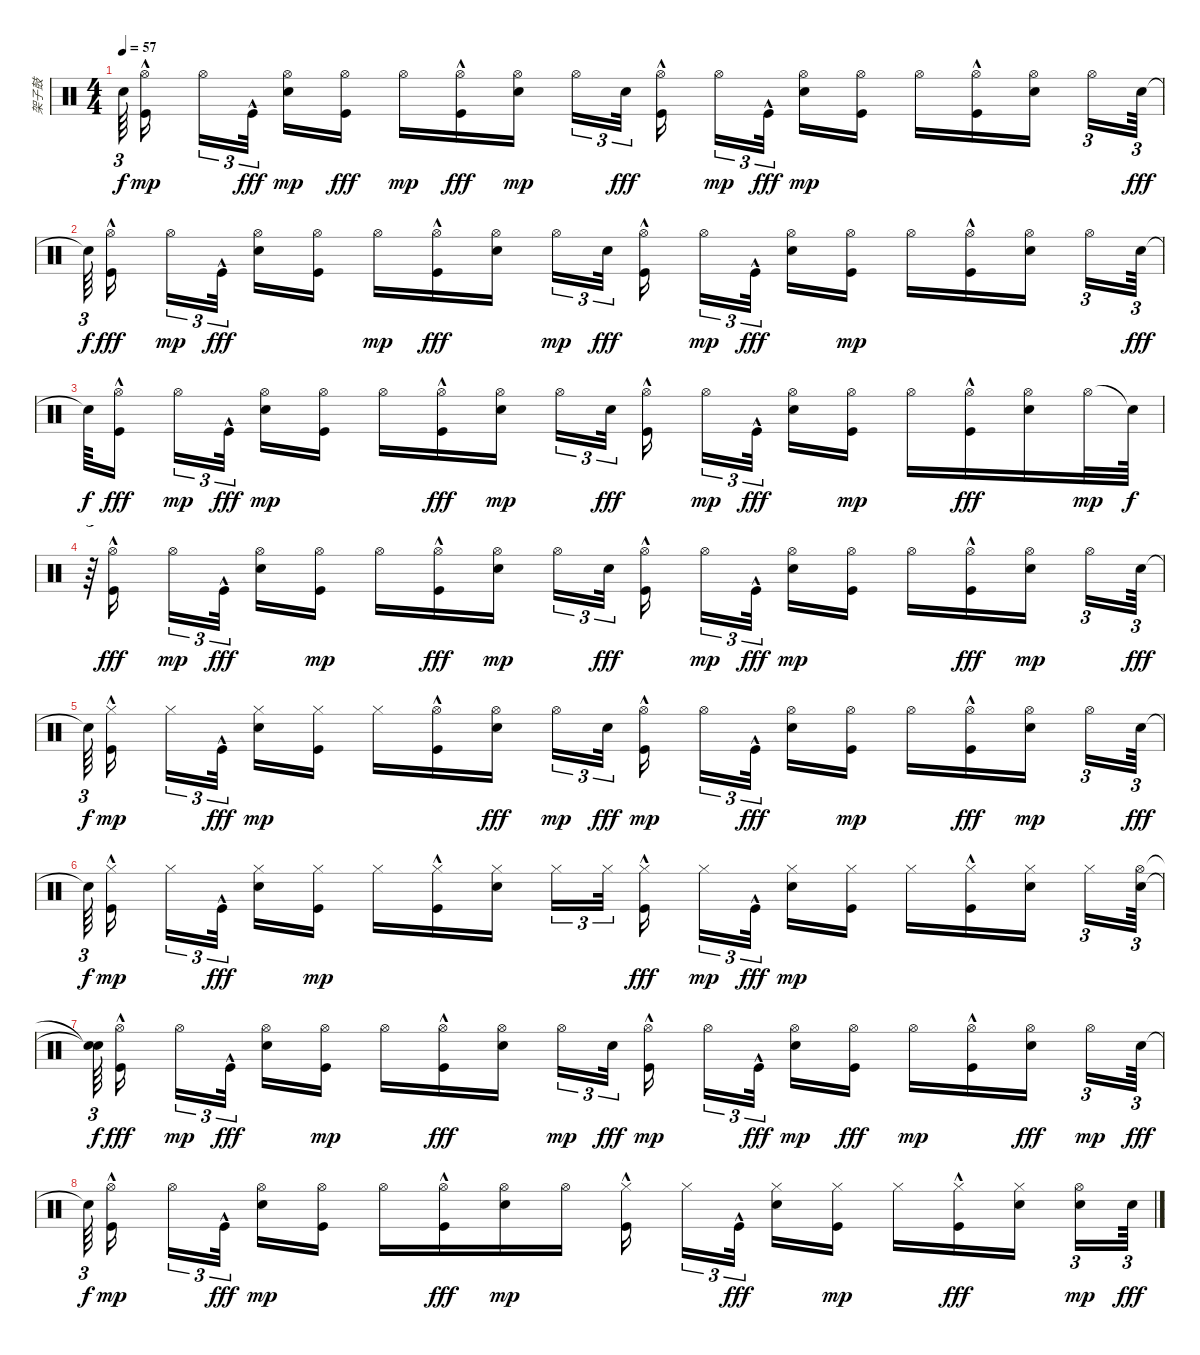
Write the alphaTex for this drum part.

\track ("架子鼓" "架子鼓") {instrument percussion}
\staff {score}
\articulation defaults
\ts (4 4)
\tempo 57
\clef neutral
\ks c "Snare (hit)"{t}.64{tu (3 2) dy f}
("Kick (hit)"{hac} "Hi-Hat (open)").16{dy mp} "Hi-Hat (open)".16{tu (3 2)} "Kick (hit)"{hac}.32{tu (3 2) dy fff} ("Electric Snare (hit)" "Hi-Hat (open)").16{dy mp} ("Hi-Hat (open)" "Kick (hit)").16{dy fff} "Hi-Hat (open)".16{dy mp} ("Hi-Hat (open)" "Kick (hit)"{hac}).16{dy fff} ("Electric Snare (hit)" "Hi-Hat (open)").16{dy mp} "Hi-Hat (open)".16{tu (3 2)} "Electric Snare (hit)".32{tu (3 2) dy fff} ("Hi-Hat (open)" "Kick (hit)"{hac}).16 "Hi-Hat (open)".16{tu (3 2) dy mp} "Kick (hit)"{hac}.32{tu (3 2) dy fff} ("Electric Snare (hit)" "Hi-Hat (open)").16{dy mp} ("Kick (hit)" "Hi-Hat (open)").16 "Hi-Hat (open)".16 ("Kick (hit)"{hac} "Hi-Hat (open)").16 ("Electric Snare (hit)" "Hi-Hat (open)").16 "Hi-Hat (open)".16{tu (3 2)} "Electric Snare (hit)".64{tu (3 2) dy fff} |
"Snare (hit)"{t}.64{tu (3 2) dy f} ("Hi-Hat (open)" "Kick (hit)"{hac}).16{dy fff} "Hi-Hat (open)".16{tu (3 2) dy mp} "Kick (hit)"{hac}.32{tu (3 2) dy fff} ("Hi-Hat (open)" "Electric Snare (hit)").16 ("Hi-Hat (open)" "Kick (hit)").16 "Hi-Hat (open)".16{dy mp} ("Hi-Hat (open)" "Kick (hit)"{hac}).16{dy fff} ("Hi-Hat (open)" "Electric Snare (hit)").16 "Hi-Hat (open)".16{tu (3 2) dy mp} "Electric Snare (hit)".32{tu (3 2) dy fff} ("Hi-Hat (open)" "Kick (hit)"{hac}).16 "Hi-Hat (open)".16{tu (3 2) dy mp} "Kick (hit)"{hac}.32{tu (3 2) dy fff} ("Hi-Hat (open)" "Electric Snare (hit)").16 ("Kick (hit)" "Hi-Hat (open)").16{dy mp} "Hi-Hat (open)".16 ("Kick (hit)"{hac} "Hi-Hat (open)").16 ("Electric Snare (hit)" "Hi-Hat (open)").16 "Hi-Hat (open)".16{tu (3 2)} "Electric Snare (hit)".64{tu (3 2) dy fff} |
"Snare (hit)"{t}.64{dy f} ("Hi-Hat (open)" "Kick (hit)"{hac}).16{dy fff} "Hi-Hat (open)".16{tu (3 2) dy mp} "Kick (hit)"{hac}.32{tu (3 2) dy fff} ("Electric Snare (hit)" "Hi-Hat (open)").16{dy mp} ("Kick (hit)" "Hi-Hat (open)").16 "Hi-Hat (open)".16 ("Hi-Hat (open)" "Kick (hit)"{hac}).16{dy fff} ("Electric Snare (hit)" "Hi-Hat (open)").16{dy mp} "Hi-Hat (open)".16{tu (3 2)} "Electric Snare (hit)".32{tu (3 2) dy fff} ("Hi-Hat (open)" "Kick (hit)"{hac}).16 "Hi-Hat (open)".16{tu (3 2) dy mp} "Kick (hit)"{hac}.32{tu (3 2) dy fff} ("Hi-Hat (open)" "Electric Snare (hit)").16 ("Kick (hit)" "Hi-Hat (open)").16{dy mp} "Hi-Hat (open)".16 ("Hi-Hat (open)" "Kick (hit)"{hac}).16{dy fff} ("Hi-Hat (open)" "Electric Snare (hit)").16 "Hi-Hat (open)".32{dy mp} "Snare (hit)"{t}.64{dy f} |
r.64{tu (3 2)} ("Hi-Hat (open)" "Kick (hit)"{hac}).16{dy fff} "Hi-Hat (open)".16{tu (3 2) dy mp} "Kick (hit)"{hac}.32{tu (3 2) dy fff} ("Hi-Hat (open)" "Electric Snare (hit)").16 ("Kick (hit)" "Hi-Hat (open)").16{dy mp} "Hi-Hat (open)".16 ("Hi-Hat (open)" "Kick (hit)"{hac}).16{dy fff} ("Electric Snare (hit)" "Hi-Hat (open)").16{dy mp} "Hi-Hat (open)".16{tu (3 2)} "Electric Snare (hit)".32{tu (3 2) dy fff} ("Hi-Hat (open)" "Kick (hit)"{hac}).16 "Hi-Hat (open)".16{tu (3 2) dy mp} "Kick (hit)"{hac}.32{tu (3 2) dy fff} ("Electric Snare (hit)" "Hi-Hat (open)").16{dy mp} ("Kick (hit)" "Hi-Hat (open)").16 "Hi-Hat (open)".16 ("Hi-Hat (open)" "Kick (hit)"{hac}).16{dy fff} ("Electric Snare (hit)" "Hi-Hat (open)").16{dy mp} "Hi-Hat (open)".16{tu (3 2)} "Electric Snare (hit)".64{tu (3 2) dy fff} |
"Snare (hit)"{t}.64{tu (3 2) dy f} ("Kick (hit)"{hac} "Hi-Hat (closed)").16{dy mp} "Hi-Hat (closed)".16{tu (3 2)} "Kick (hit)"{hac}.32{tu (3 2) dy fff} ("Electric Snare (hit)" "Hi-Hat (closed)").16{dy mp} ("Kick (hit)" "Hi-Hat (closed)").16 "Hi-Hat (closed)".16 ("Kick (hit)"{hac} "Hi-Hat (open)").16 ("Hi-Hat (open)" "Electric Snare (hit)").16{dy fff} "Hi-Hat (open)".16{tu (3 2) dy mp} "Electric Snare (hit)".32{tu (3 2) dy fff} ("Kick (hit)"{hac} "Hi-Hat (open)").16{dy mp} "Hi-Hat (open)".16{tu (3 2)} "Kick (hit)"{hac}.32{tu (3 2) dy fff} ("Hi-Hat (open)" "Electric Snare (hit)").16 ("Kick (hit)" "Hi-Hat (open)").16{dy mp} "Hi-Hat (open)".16 ("Hi-Hat (open)" "Kick (hit)"{hac}).16{dy fff} ("Electric Snare (hit)" "Hi-Hat (open)").16{dy mp} "Hi-Hat (open)".16{tu (3 2)} "Electric Snare (hit)".64{tu (3 2) dy fff} |
"Snare (hit)"{t}.64{tu (3 2) dy f} ("Kick (hit)"{hac} "Hi-Hat (closed)").16{dy mp} "Hi-Hat (closed)".16{tu (3 2)} "Kick (hit)"{hac}.32{tu (3 2) dy fff} ("Hi-Hat (closed)" "Electric Snare (hit)").16 ("Kick (hit)" "Hi-Hat (closed)").16{dy mp} "Hi-Hat (closed)".16 ("Kick (hit)"{hac} "Hi-Hat (closed)").16 ("Electric Snare (hit)" "Hi-Hat (closed)").16 "Hi-Hat (closed)".16{tu (3 2)} "Hi-Hat (closed)".32{tu (3 2)} ("Hi-Hat (closed)" "Kick (hit)"{hac}).16{dy fff} "Hi-Hat (closed)".16{tu (3 2) dy mp} "Kick (hit)"{hac}.32{tu (3 2) dy fff} ("Electric Snare (hit)" "Hi-Hat (closed)").16{dy mp} ("Kick (hit)" "Hi-Hat (closed)").16 "Hi-Hat (closed)".16 ("Kick (hit)"{hac} "Hi-Hat (closed)").16 ("Electric Snare (hit)" "Hi-Hat (closed)").16 "Hi-Hat (closed)".16{tu (3 2)} ("Electric Snare (hit)" "Hi-Hat (open)").64{tu (3 2)} |
("Snare (hit)"{t} "Snare (hit)"{t}).64{tu (3 2) dy f} ("Hi-Hat (open)" "Kick (hit)"{hac}).16{dy fff} "Hi-Hat (open)".16{tu (3 2) dy mp} "Kick (hit)"{hac}.32{tu (3 2) dy fff} ("Hi-Hat (open)" "Electric Snare (hit)").16 ("Kick (hit)" "Hi-Hat (open)").16{dy mp} "Hi-Hat (open)".16 ("Hi-Hat (open)" "Kick (hit)"{hac}).16{dy fff} ("Hi-Hat (open)" "Electric Snare (hit)").16 "Hi-Hat (open)".16{tu (3 2) dy mp} "Electric Snare (hit)".32{tu (3 2) dy fff} ("Kick (hit)"{hac} "Hi-Hat (open)").16{dy mp} "Hi-Hat (open)".16{tu (3 2)} "Kick (hit)"{hac}.32{tu (3 2) dy fff} ("Electric Snare (hit)" "Hi-Hat (open)").16{dy mp} ("Hi-Hat (open)" "Kick (hit)").16{dy fff} "Hi-Hat (open)".16{dy mp} ("Kick (hit)"{hac} "Hi-Hat (open)").16 ("Hi-Hat (open)" "Electric Snare (hit)").16{dy fff} "Hi-Hat (open)".16{tu (3 2) dy mp} "Electric Snare (hit)".64{tu (3 2) dy fff} |
"Snare (hit)"{t}.64{tu (3 2) dy f} ("Kick (hit)"{hac} "Hi-Hat (open)").16{dy mp} "Hi-Hat (open)".16{tu (3 2)} "Kick (hit)"{hac}.32{tu (3 2) dy fff} ("Electric Snare (hit)" "Hi-Hat (open)").16{dy mp} ("Kick (hit)" "Hi-Hat (open)").16 "Hi-Hat (open)".16 ("Hi-Hat (open)" "Kick (hit)"{hac}).16{dy fff} ("Electric Snare (hit)" "Hi-Hat (open)").16{dy mp} "Hi-Hat (open)".16 ("Kick (hit)"{hac} "Hi-Hat (closed)").16 "Hi-Hat (closed)".16{tu (3 2)} "Kick (hit)"{hac}.32{tu (3 2) dy fff} ("Hi-Hat (closed)" "Electric Snare (hit)").16 ("Kick (hit)" "Hi-Hat (closed)").16{dy mp} "Hi-Hat (closed)".16 ("Hi-Hat (closed)" "Kick (hit)"{hac}).16{dy fff} ("Hi-Hat (closed)" "Electric Snare (hit)").16 ("Electric Snare (hit)" "Hi-Hat (open)").16{tu (3 2) dy mp} "Electric Snare (hit)".64{tu (3 2) dy fff}
